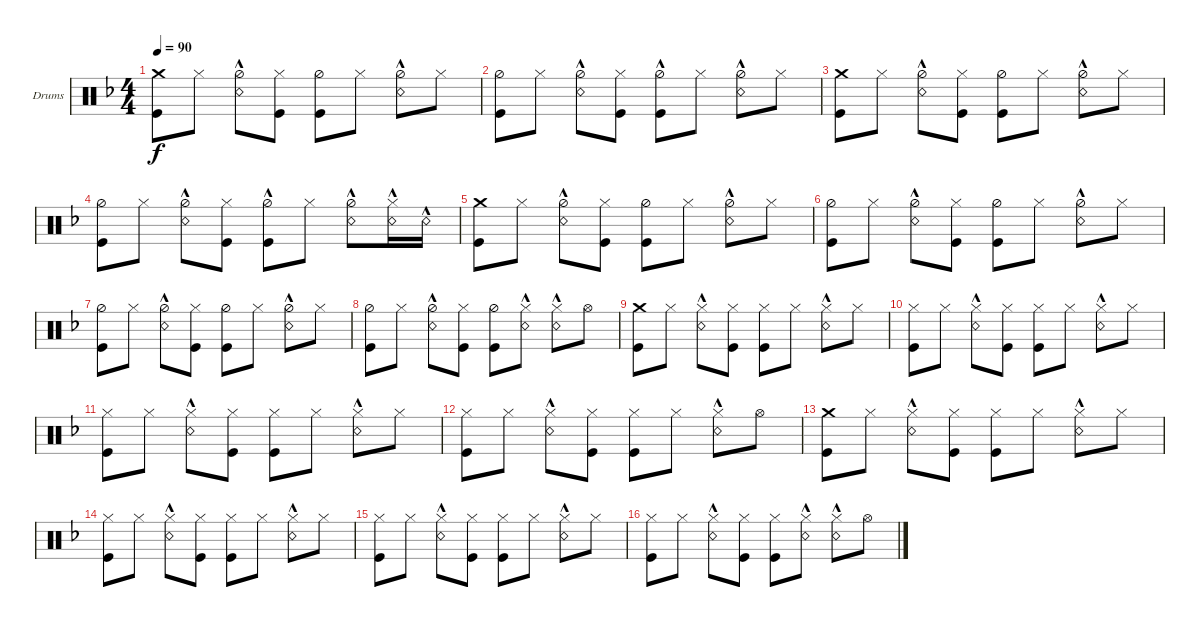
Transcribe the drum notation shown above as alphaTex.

\defaultSystemsLayout 4
\bracketExtendMode groupsimilarinstruments
\firstSystemTrackNameOrientation horizontal
\otherSystemsTrackNameOrientation horizontal
\track ("Drumkit" "Drums") {instrument percussion}
\staff {score}
\articulation defaults
\ts (4 4)
\tempo 90
\clef neutral
\ks dminor
("Kick (hit)" "Crash medium (hit)").8{dy f} "Hi-Hat (closed)".8 ("Hi-Hat (half)" "Snare (rim shot)"{hac}).8 ("Hi-Hat (closed)" "Kick (hit)").8 ("Kick (hit)" "Hi-Hat (half)").8 "Hi-Hat (closed)".8 ("Snare (rim shot)"{hac} "Hi-Hat (half)").8 "Hi-Hat (closed)".8 |
("Kick (hit)" "Hi-Hat (half)").8 "Hi-Hat (closed)".8 ("Hi-Hat (half)"{hac} "Snare (rim shot)"{hac}).8 ("Hi-Hat (closed)" "Kick (hit)").8 ("Kick (hit)" "Hi-Hat (half)"{hac}).8 "Hi-Hat (closed)".8 ("Snare (rim shot)"{hac} "Hi-Hat (half)"{hac}).8 "Hi-Hat (closed)".8 |
("Kick (hit)" "Crash medium (hit)").8 "Hi-Hat (closed)".8 ("Hi-Hat (half)" "Snare (rim shot)"{hac}).8 ("Hi-Hat (closed)" "Kick (hit)").8 ("Kick (hit)" "Hi-Hat (half)").8 "Hi-Hat (closed)".8 ("Snare (rim shot)"{hac} "Hi-Hat (half)").8 "Hi-Hat (closed)".8 |
("Kick (hit)" "Hi-Hat (half)").8 "Hi-Hat (closed)".8 ("Hi-Hat (half)"{hac} "Snare (rim shot)"{hac}).8 ("Hi-Hat (closed)" "Kick (hit)").8 ("Kick (hit)" "Hi-Hat (half)"{hac}).8 "Hi-Hat (closed)".8 ("Snare (rim shot)"{hac} "Hi-Hat (half)"{hac}).8 ("Hi-Hat (closed)" "Snare (rim shot)"{hac}).16 "Snare (rim shot)"{hac}.16 |
("Kick (hit)" "Crash medium (hit)").8 "Hi-Hat (closed)".8 ("Hi-Hat (half)" "Snare (rim shot)"{hac}).8 ("Hi-Hat (closed)" "Kick (hit)").8 ("Kick (hit)" "Hi-Hat (half)").8 "Hi-Hat (closed)".8 ("Snare (rim shot)"{hac} "Hi-Hat (half)").8 "Hi-Hat (closed)".8 |
("Kick (hit)" "Hi-Hat (half)").8 "Hi-Hat (closed)".8 ("Hi-Hat (half)" "Snare (rim shot)"{hac}).8 ("Hi-Hat (closed)" "Kick (hit)").8 ("Kick (hit)" "Hi-Hat (half)").8 "Hi-Hat (closed)".8 ("Snare (rim shot)"{hac} "Hi-Hat (half)").8 "Hi-Hat (closed)".8 |
("Kick (hit)" "Hi-Hat (half)").8 "Hi-Hat (closed)".8 ("Hi-Hat (half)" "Snare (rim shot)"{hac}).8 ("Hi-Hat (closed)" "Kick (hit)").8 ("Kick (hit)" "Hi-Hat (half)").8 "Hi-Hat (closed)".8 ("Snare (rim shot)"{hac} "Hi-Hat (half)").8 "Hi-Hat (closed)".8 |
("Kick (hit)" "Hi-Hat (half)").8 "Hi-Hat (closed)".8 ("Hi-Hat (half)" "Snare (rim shot)"{hac}).8 ("Hi-Hat (closed)" "Kick (hit)").8 ("Kick (hit)" "Hi-Hat (half)").8 ("Hi-Hat (closed)" "Snare (rim shot)"{hac}).8 ("Snare (rim shot)"{hac} "Hi-Hat (closed)").8 "Hi-Hat (open)".8 |
("Kick (hit)" "Crash medium (hit)").8 "Hi-Hat (closed)".8 ("Hi-Hat (closed)" "Snare (rim shot)"{hac}).8 ("Hi-Hat (closed)" "Kick (hit)").8 ("Kick (hit)" "Hi-Hat (closed)").8 "Hi-Hat (closed)".8 ("Snare (rim shot)"{hac} "Hi-Hat (closed)").8 "Hi-Hat (closed)".8 |
("Kick (hit)" "Hi-Hat (closed)").8 "Hi-Hat (closed)".8 ("Hi-Hat (closed)" "Snare (rim shot)"{hac}).8 ("Hi-Hat (closed)" "Kick (hit)").8 ("Kick (hit)" "Hi-Hat (closed)").8 "Hi-Hat (closed)".8 ("Snare (rim shot)"{hac} "Hi-Hat (closed)").8 "Hi-Hat (closed)".8 |
("Kick (hit)" "Hi-Hat (closed)").8 "Hi-Hat (closed)".8 ("Hi-Hat (closed)" "Snare (rim shot)"{hac}).8 ("Hi-Hat (closed)" "Kick (hit)").8 ("Kick (hit)" "Hi-Hat (closed)").8 "Hi-Hat (closed)".8 ("Snare (rim shot)"{hac} "Hi-Hat (closed)").8 "Hi-Hat (closed)".8 |
("Kick (hit)" "Hi-Hat (closed)").8 "Hi-Hat (closed)".8 ("Hi-Hat (closed)" "Snare (rim shot)"{hac}).8 ("Hi-Hat (closed)" "Kick (hit)").8 ("Kick (hit)" "Hi-Hat (closed)").8 "Hi-Hat (closed)".8 ("Snare (rim shot)"{hac} "Hi-Hat (closed)").8 "Hi-Hat (open)".8 |
("Kick (hit)" "Crash medium (hit)").8 "Hi-Hat (closed)".8 ("Hi-Hat (closed)" "Snare (rim shot)"{hac}).8 ("Hi-Hat (closed)" "Kick (hit)").8 ("Kick (hit)" "Hi-Hat (closed)").8 "Hi-Hat (closed)".8 ("Snare (rim shot)"{hac} "Hi-Hat (closed)").8 "Hi-Hat (closed)".8 |
("Kick (hit)" "Hi-Hat (closed)").8 "Hi-Hat (closed)".8 ("Hi-Hat (closed)" "Snare (rim shot)"{hac}).8 ("Hi-Hat (closed)" "Kick (hit)").8 ("Kick (hit)" "Hi-Hat (closed)").8 "Hi-Hat (closed)".8 ("Snare (rim shot)"{hac} "Hi-Hat (closed)").8 "Hi-Hat (closed)".8 |
("Kick (hit)" "Hi-Hat (closed)").8 "Hi-Hat (closed)".8 ("Hi-Hat (closed)" "Snare (rim shot)"{hac}).8 ("Hi-Hat (closed)" "Kick (hit)").8 ("Kick (hit)" "Hi-Hat (closed)").8 "Hi-Hat (closed)".8 ("Snare (rim shot)"{hac} "Hi-Hat (closed)").8 "Hi-Hat (closed)".8 |
("Kick (hit)" "Hi-Hat (closed)").8 "Hi-Hat (closed)".8 ("Hi-Hat (closed)" "Snare (rim shot)"{hac}).8 ("Hi-Hat (closed)" "Kick (hit)").8 ("Kick (hit)" "Hi-Hat (closed)").8 ("Hi-Hat (closed)" "Snare (rim shot)"{hac}).8 ("Snare (rim shot)"{hac} "Hi-Hat (closed)").8 "Hi-Hat (open)".8
